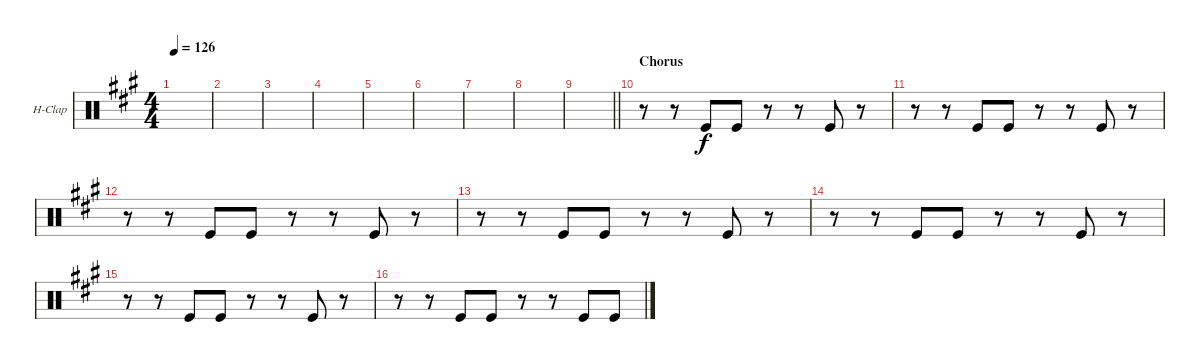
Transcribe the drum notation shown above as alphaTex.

\bracketExtendMode groupsimilarinstruments
\firstSystemTrackNameOrientation horizontal
\otherSystemsTrackNameOrientation horizontal
\track ("Hand Clap" "H-Clap") {instrument percussion}
\staff {score}
\articulation defaults
\ts (4 4)
\tempo 126
\clef neutral
\ks a
|
|
|
|
|
|
|
|
\barLineRight lightlight
|
\section ("" "Chorus")
r.8 r.8 "Kick (hit)".8 "Kick (hit)".8 r.8 r.8 "Kick (hit)".8 r.8 |
r.8 r.8 "Kick (hit)".8 "Kick (hit)".8 r.8 r.8 "Kick (hit)".8 r.8 |
r.8 r.8 "Kick (hit)".8 "Kick (hit)".8 r.8 r.8 "Kick (hit)".8 r.8 |
r.8 r.8 "Kick (hit)".8 "Kick (hit)".8 r.8 r.8 "Kick (hit)".8 r.8 |
r.8 r.8 "Kick (hit)".8 "Kick (hit)".8 r.8 r.8 "Kick (hit)".8 r.8 |
r.8 r.8 "Kick (hit)".8 "Kick (hit)".8 r.8 r.8 "Kick (hit)".8 r.8 |
r.8 r.8 "Kick (hit)".8 "Kick (hit)".8 r.8 r.8 "Kick (hit)".8 "Kick (hit)".8
